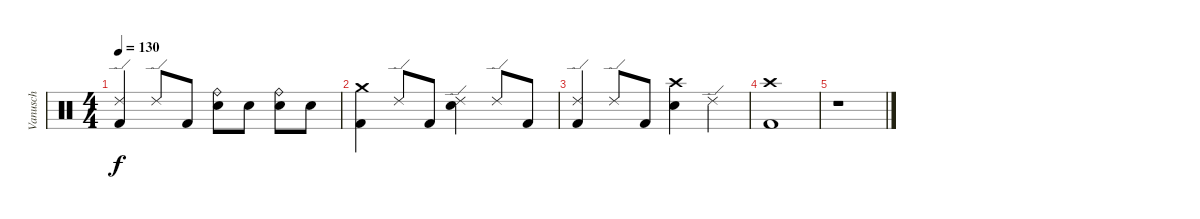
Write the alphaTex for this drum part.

\track ("Vanusch" "Vanusch") {instrument percussion}
\staff {score}
\articulation defaults
\ts (4 4)
\tempo 130
\clef neutral
\ks c
("Ride (edge) 2" "Kick (hit) 2").4{dy f} "Ride (edge) 2".8 "Kick (hit) 2".8 ("Ride (bell)" "Snare (hit) 2").8 "Snare (hit) 2".8 ("Ride (bell)" "Snare (hit) 2").8 "Snare (hit) 2".8 |
("Crash medium (hit)" "Kick (hit) 2").4 "Ride (edge) 2".8 "Kick (hit) 2".8 ("Ride (edge) 2" "Snare (hit) 2").4 "Ride (edge) 2".8 "Kick (hit) 2".8 |
("Ride (edge) 2" "Kick (hit) 2").4 "Ride (edge) 2".8 "Kick (hit) 2".8 ("Crash high (hit)" "Snare (hit) 2").4 "Ride (edge) 2".4 |
("Crash high (hit)" "Kick (hit) 2").1 |
r.1
